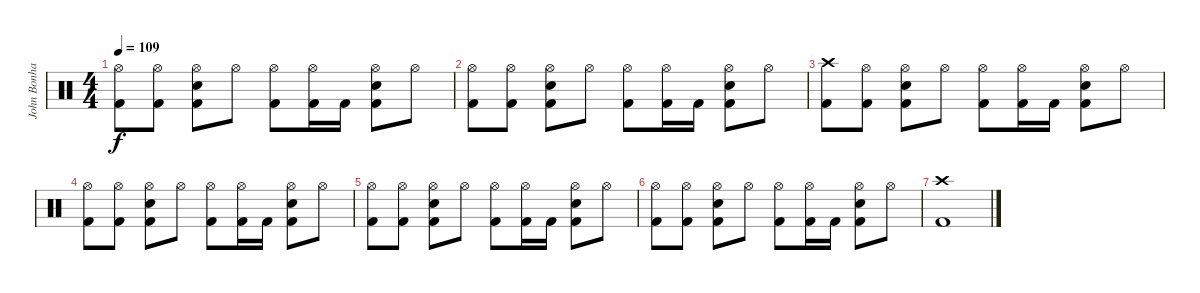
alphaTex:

\track ("John Bonham" "John Bonha") {instrument percussion}
\staff {score}
\articulation defaults
\ts (4 4)
\tempo 109
\clef neutral
\ks c
("Kick (hit) 2" "Hi-Hat (open)").8{dy f} ("Kick (hit) 2" "Hi-Hat (open)").8 ("Kick (hit) 2" "Snare (hit) 2" "Hi-Hat (open)").8 "Hi-Hat (open)".8 ("Kick (hit) 2" "Hi-Hat (open)").8 ("Kick (hit) 2" "Hi-Hat (open)").16 "Kick (hit) 2".16 ("Kick (hit) 2" "Electric Snare (hit)" "Hi-Hat (open)").8 "Hi-Hat (open)".8 |
("Kick (hit) 2" "Hi-Hat (open)").8 ("Kick (hit) 2" "Hi-Hat (open)").8 ("Kick (hit) 2" "Snare (hit) 2" "Hi-Hat (open)").8 "Hi-Hat (open)".8 ("Kick (hit) 2" "Hi-Hat (open)").8 ("Kick (hit) 2" "Hi-Hat (open)").16 "Kick (hit) 2".16 ("Kick (hit) 2" "Electric Snare (hit)" "Hi-Hat (open)").8 "Hi-Hat (open)".8 |
("Kick (hit) 2" "Crash high (hit)").8 ("Kick (hit) 2" "Hi-Hat (open)").8 ("Electric Snare (hit)" "Kick (hit) 2" "Hi-Hat (open)").8 "Hi-Hat (open)".8 ("Kick (hit) 2" "Hi-Hat (open)").8 ("Kick (hit) 2" "Hi-Hat (open)").16 "Kick (hit) 2".16 ("Kick (hit) 2" "Snare (hit) 2" "Hi-Hat (open)").8 "Hi-Hat (open)".8 |
("Kick (hit) 2" "Hi-Hat (open)").8 ("Kick (hit) 2" "Hi-Hat (open)").8 ("Kick (hit) 2" "Snare (hit) 2" "Hi-Hat (open)").8 "Hi-Hat (open)".8 ("Kick (hit) 2" "Hi-Hat (open)").8 ("Kick (hit) 2" "Hi-Hat (open)").16 "Kick (hit) 2".16 ("Kick (hit) 2" "Electric Snare (hit)" "Hi-Hat (open)").8 "Hi-Hat (open)".8 |
("Kick (hit) 2" "Hi-Hat (open)").8 ("Kick (hit) 2" "Hi-Hat (open)").8 ("Kick (hit) 2" "Snare (hit) 2" "Hi-Hat (open)").8 "Hi-Hat (open)".8 ("Kick (hit) 2" "Hi-Hat (open)").8 ("Kick (hit) 2" "Hi-Hat (open)").16 "Kick (hit) 2".16 ("Kick (hit) 2" "Electric Snare (hit)" "Hi-Hat (open)").8 "Hi-Hat (open)".8 |
("Kick (hit) 2" "Hi-Hat (open)").8 ("Kick (hit) 2" "Hi-Hat (open)").8 ("Kick (hit) 2" "Snare (hit) 2" "Hi-Hat (open)").8 "Hi-Hat (open)".8 ("Kick (hit) 2" "Hi-Hat (open)").8 ("Kick (hit) 2" "Hi-Hat (open)").16 "Kick (hit) 2".16 ("Kick (hit) 2" "Electric Snare (hit)" "Hi-Hat (open)").8 "Hi-Hat (open)".8 |
("Kick (hit) 2" "Crash high (hit)").1
